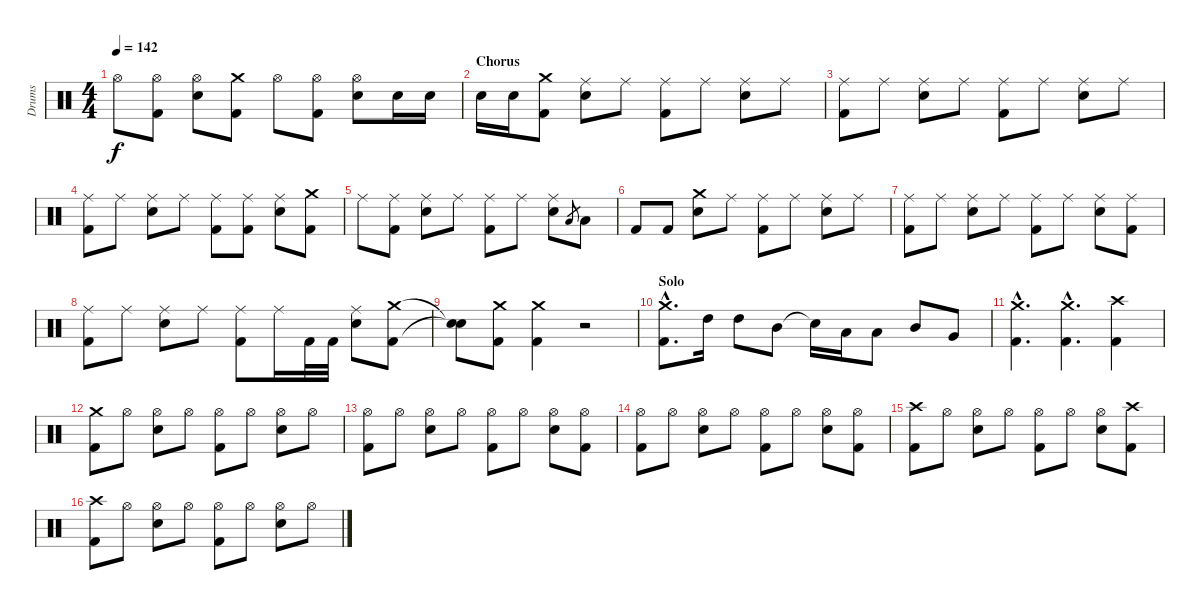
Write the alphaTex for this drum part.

\track ("Drums" "Drums") {instrument percussion}
\staff {score}
\articulation defaults
\ts (4 4)
\tempo 142
\clef neutral
\ks c "Hi-Hat (open)".8{dy f}
("Hi-Hat (open)" "Kick (hit) 2").8 ("Hi-Hat (open)" "Snare (hit) 2").8 ("Crash medium (hit)" "Kick (hit) 2").8 "Hi-Hat (open)".8 ("Hi-Hat (open)" "Kick (hit) 2").8 ("Hi-Hat (open)" "Snare (hit) 2").8 "Snare (hit) 2".16 "Snare (hit) 2".16 |
\section ("" "Chorus")
"Snare (hit) 2".16 "Snare (hit) 2".16 ("Crash medium (hit)" "Kick (hit) 2").8 ("Ride (middle)" "Snare (hit) 2").8 "Ride (middle)".8 ("Ride (middle)" "Kick (hit) 2").8 "Ride (middle)".8 ("Ride (middle)" "Snare (hit) 2").8 "Ride (middle)".8 |
("Ride (middle)" "Kick (hit) 2").8 "Ride (middle)".8 ("Ride (middle)" "Snare (hit) 2").8 "Ride (middle)".8 ("Ride (middle)" "Kick (hit) 2").8 "Ride (middle)".8 ("Ride (middle)" "Snare (hit) 2").8 "Ride (middle)".8 |
("Ride (middle)" "Kick (hit) 2").8 "Ride (middle)".8 ("Ride (middle)" "Snare (hit) 2").8 "Ride (middle)".8 ("Ride (middle)" "Kick (hit) 2").8 ("Ride (middle)" "Kick (hit) 2").8 ("Ride (middle)" "Snare (hit) 2").8 ("Crash medium (hit)" "Kick (hit) 2").8 |
"Ride (middle)".8 ("Ride (middle)" "Kick (hit) 2").8 ("Ride (middle)" "Snare (hit) 2").8 "Ride (middle)".8 ("Ride (middle)" "Kick (hit) 2").8 "Ride (middle)".8 ("Ride (middle)" "Snare (hit) 2").8 "Low Floor Tom (hit)".8{gr} "Low Floor Tom (hit)".8 |
"Kick (hit) 2".8 "Kick (hit) 2".8 ("Crash medium (hit)" "Snare (hit) 2").8 "Ride (middle)".8 ("Ride (middle)" "Kick (hit) 2").8 "Ride (middle)".8 ("Ride (middle)" "Snare (hit) 2").8 "Ride (middle)".8 |
("Ride (middle)" "Kick (hit) 2").8 "Ride (middle)".8 ("Ride (middle)" "Snare (hit) 2").8 "Ride (middle)".8 ("Ride (middle)" "Kick (hit) 2").8 "Ride (middle)".8 ("Ride (middle)" "Snare (hit) 2").8 ("Ride (middle)" "Kick (hit) 2").8 |
("Ride (middle)" "Kick (hit) 2").8 "Ride (middle)".8 ("Ride (middle)" "Snare (hit) 2").8 "Ride (middle)".8 ("Ride (middle)" "Kick (hit) 2").8 "Ride (middle)".16 "Kick (hit) 2".32 "Kick (hit) 2".32 ("Ride (middle)" "Snare (hit) 2").8 ("Crash medium (hit)" "Kick (hit) 2").8 |
("Snare (hit)"{t} "Snare (hit)"{t}).8 ("Crash medium (hit)" "Kick (hit) 2").8 ("Crash medium (hit)" "Kick (hit) 2").4 r.2 |
\section ("" "Solo")
("Crash medium (hit)"{hac} "Kick (hit) 2"{hac}).8{d} "High Tom (hit)".16 "High Tom (hit)".8 "Mid Tom (hit)".8 "Snare (hit)"{t}.16 "Low Tom (hit)".16 "Low Tom (hit)".8 "Mid Tom (hit)".8 "Very Low Tom (hit)".8 |
("Crash medium (hit)"{hac} "Kick (hit) 2"{hac}).4{d} ("Crash medium (hit)"{hac} "Kick (hit) 2"{hac}).4{d} ("Crash high (hit)" "Kick (hit) 2").4 |
("Crash medium (hit)" "Kick (hit) 2").8 "Hi-Hat (open)".8 ("Hi-Hat (open)" "Snare (hit) 2").8 "Hi-Hat (open)".8 ("Hi-Hat (open)" "Kick (hit) 2").8 "Hi-Hat (open)".8 ("Hi-Hat (open)" "Snare (hit) 2").8 "Hi-Hat (open)".8 |
("Hi-Hat (open)" "Kick (hit) 2").8 "Hi-Hat (open)".8 ("Hi-Hat (open)" "Snare (hit) 2").8 "Hi-Hat (open)".8 ("Hi-Hat (open)" "Kick (hit) 2").8 "Hi-Hat (open)".8 ("Hi-Hat (open)" "Snare (hit) 2").8 ("Hi-Hat (open)" "Kick (hit) 2").8 |
("Hi-Hat (open)" "Kick (hit) 2").8 "Hi-Hat (open)".8 ("Hi-Hat (open)" "Snare (hit) 2").8 "Hi-Hat (open)".8 ("Hi-Hat (open)" "Kick (hit) 2").8 "Hi-Hat (open)".8 ("Hi-Hat (open)" "Snare (hit) 2").8 ("Hi-Hat (open)" "Kick (hit) 2").8 |
("Crash high (hit)" "Kick (hit) 2").8 "Hi-Hat (open)".8 ("Hi-Hat (open)" "Snare (hit) 2").8 "Hi-Hat (open)".8 ("Hi-Hat (open)" "Kick (hit) 2").8 "Hi-Hat (open)".8 ("Hi-Hat (open)" "Snare (hit) 2").8 ("Crash high (hit)" "Kick (hit) 2").8 |
("Crash high (hit)" "Kick (hit) 2").8 "Hi-Hat (open)".8 ("Hi-Hat (open)" "Snare (hit) 2").8 "Hi-Hat (open)".8 ("Hi-Hat (open)" "Kick (hit) 2").8 "Hi-Hat (open)".8 ("Hi-Hat (open)" "Snare (hit) 2").8 "Hi-Hat (open)".8
